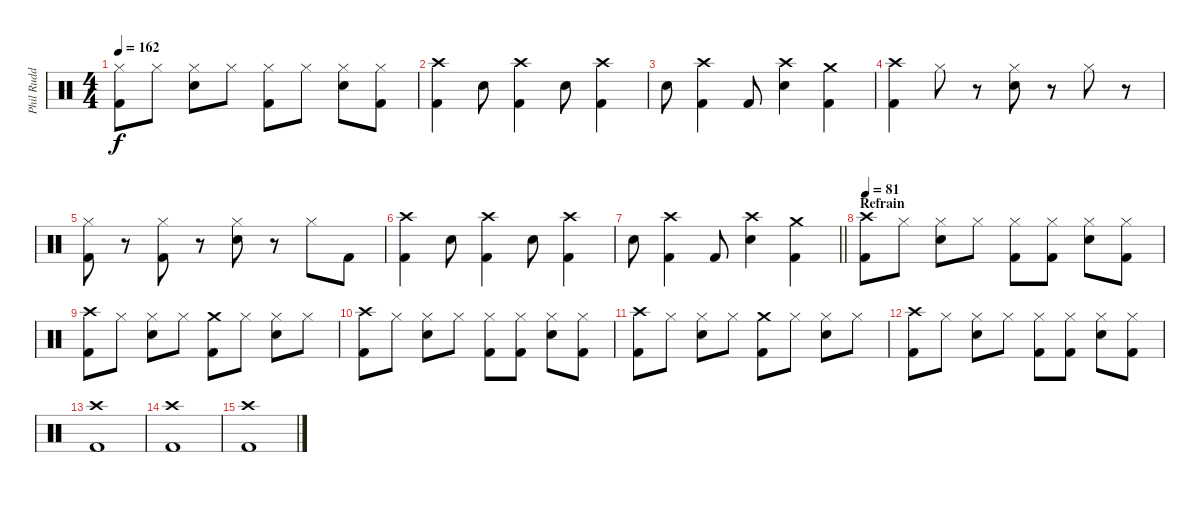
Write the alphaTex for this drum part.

\track ("Phil Rudd" "Phil Rudd") {instrument percussion}
\staff {score}
\articulation defaults
\ts (4 4)
\tempo 162
\clef neutral
\ks c
("Hi-Hat (closed)" "Kick (hit) 2").8{dy f} "Hi-Hat (closed)".8 ("Hi-Hat (closed)" "Snare (hit) 2").8 "Hi-Hat (closed)".8 ("Hi-Hat (closed)" "Kick (hit) 2").8 "Hi-Hat (closed)".8 ("Hi-Hat (closed)" "Snare (hit) 2").8 ("Hi-Hat (closed)" "Kick (hit) 2").8 |
("Crash high (hit)" "Kick (hit) 2").4 "Snare (hit) 2".8 ("Crash high (hit)" "Kick (hit) 2").4 "Snare (hit) 2".8 ("Crash high (hit)" "Kick (hit) 2").4 |
"Snare (hit) 2".8 ("Crash high (hit)" "Kick (hit) 2").4 "Kick (hit) 2".8 ("Crash high (hit)" "Snare (hit) 2").4 ("Crash medium (hit)" "Kick (hit) 2").4 |
("Crash high (hit)" "Kick (hit) 2").4 "Hi-Hat (closed)".8 r.8 ("Hi-Hat (closed)" "Snare (hit) 2").8 r.8 "Hi-Hat (closed)".8 r.8 |
("Hi-Hat (closed)" "Kick (hit) 2").8 r.8 ("Hi-Hat (closed)" "Kick (hit) 2").8 r.8 ("Hi-Hat (closed)" "Snare (hit) 2").8 r.8 "Hi-Hat (closed)".8 "Kick (hit) 2".8 |
("Crash high (hit)" "Kick (hit) 2").4 "Snare (hit) 2".8 ("Crash high (hit)" "Kick (hit) 2").4 "Snare (hit) 2".8 ("Crash high (hit)" "Kick (hit) 2").4 |
\barLineRight lightlight "Snare (hit) 2".8
("Crash high (hit)" "Kick (hit) 2").4 "Kick (hit) 2".8 ("Crash high (hit)" "Snare (hit) 2").4 ("Crash medium (hit)" "Kick (hit) 2").4 |
\section ("" "Refrain")
\tempo 81
("Crash high (hit)" "Kick (hit) 2").8 "Hi-Hat (closed)".8 ("Hi-Hat (closed)" "Snare (hit) 2").8 "Hi-Hat (closed)".8 ("Hi-Hat (closed)" "Kick (hit) 2").8 ("Hi-Hat (closed)" "Kick (hit) 2").8 ("Hi-Hat (closed)" "Snare (hit) 2").8 ("Hi-Hat (closed)" "Kick (hit) 2").8 |
("Crash high (hit)" "Kick (hit) 2").8 "Hi-Hat (closed)".8 ("Hi-Hat (closed)" "Snare (hit) 2").8 "Hi-Hat (closed)".8 ("Crash medium (hit)" "Kick (hit) 2").8 "Hi-Hat (closed)".8 ("Hi-Hat (closed)" "Snare (hit) 2").8 "Hi-Hat (closed)".8 |
("Crash high (hit)" "Kick (hit) 2").8 "Hi-Hat (closed)".8 ("Hi-Hat (closed)" "Snare (hit) 2").8 "Hi-Hat (closed)".8 ("Hi-Hat (closed)" "Kick (hit) 2").8 ("Hi-Hat (closed)" "Kick (hit) 2").8 ("Hi-Hat (closed)" "Snare (hit) 2").8 ("Hi-Hat (closed)" "Kick (hit) 2").8 |
("Crash high (hit)" "Kick (hit) 2").8 "Hi-Hat (closed)".8 ("Hi-Hat (closed)" "Snare (hit) 2").8 "Hi-Hat (closed)".8 ("Crash medium (hit)" "Kick (hit) 2").8 "Hi-Hat (closed)".8 ("Hi-Hat (closed)" "Snare (hit) 2").8 "Hi-Hat (closed)".8 |
("Crash high (hit)" "Kick (hit) 2").8 "Hi-Hat (closed)".8 ("Hi-Hat (closed)" "Snare (hit) 2").8 "Hi-Hat (closed)".8 ("Hi-Hat (closed)" "Kick (hit) 2").8 ("Hi-Hat (closed)" "Kick (hit) 2").8 ("Hi-Hat (closed)" "Snare (hit) 2").8 ("Hi-Hat (closed)" "Kick (hit) 2").8 |
("Crash high (hit)" "Kick (hit) 2").1 |
("Crash high (hit)" "Kick (hit) 2").1 |
("Crash high (hit)" "Kick (hit) 2").1
